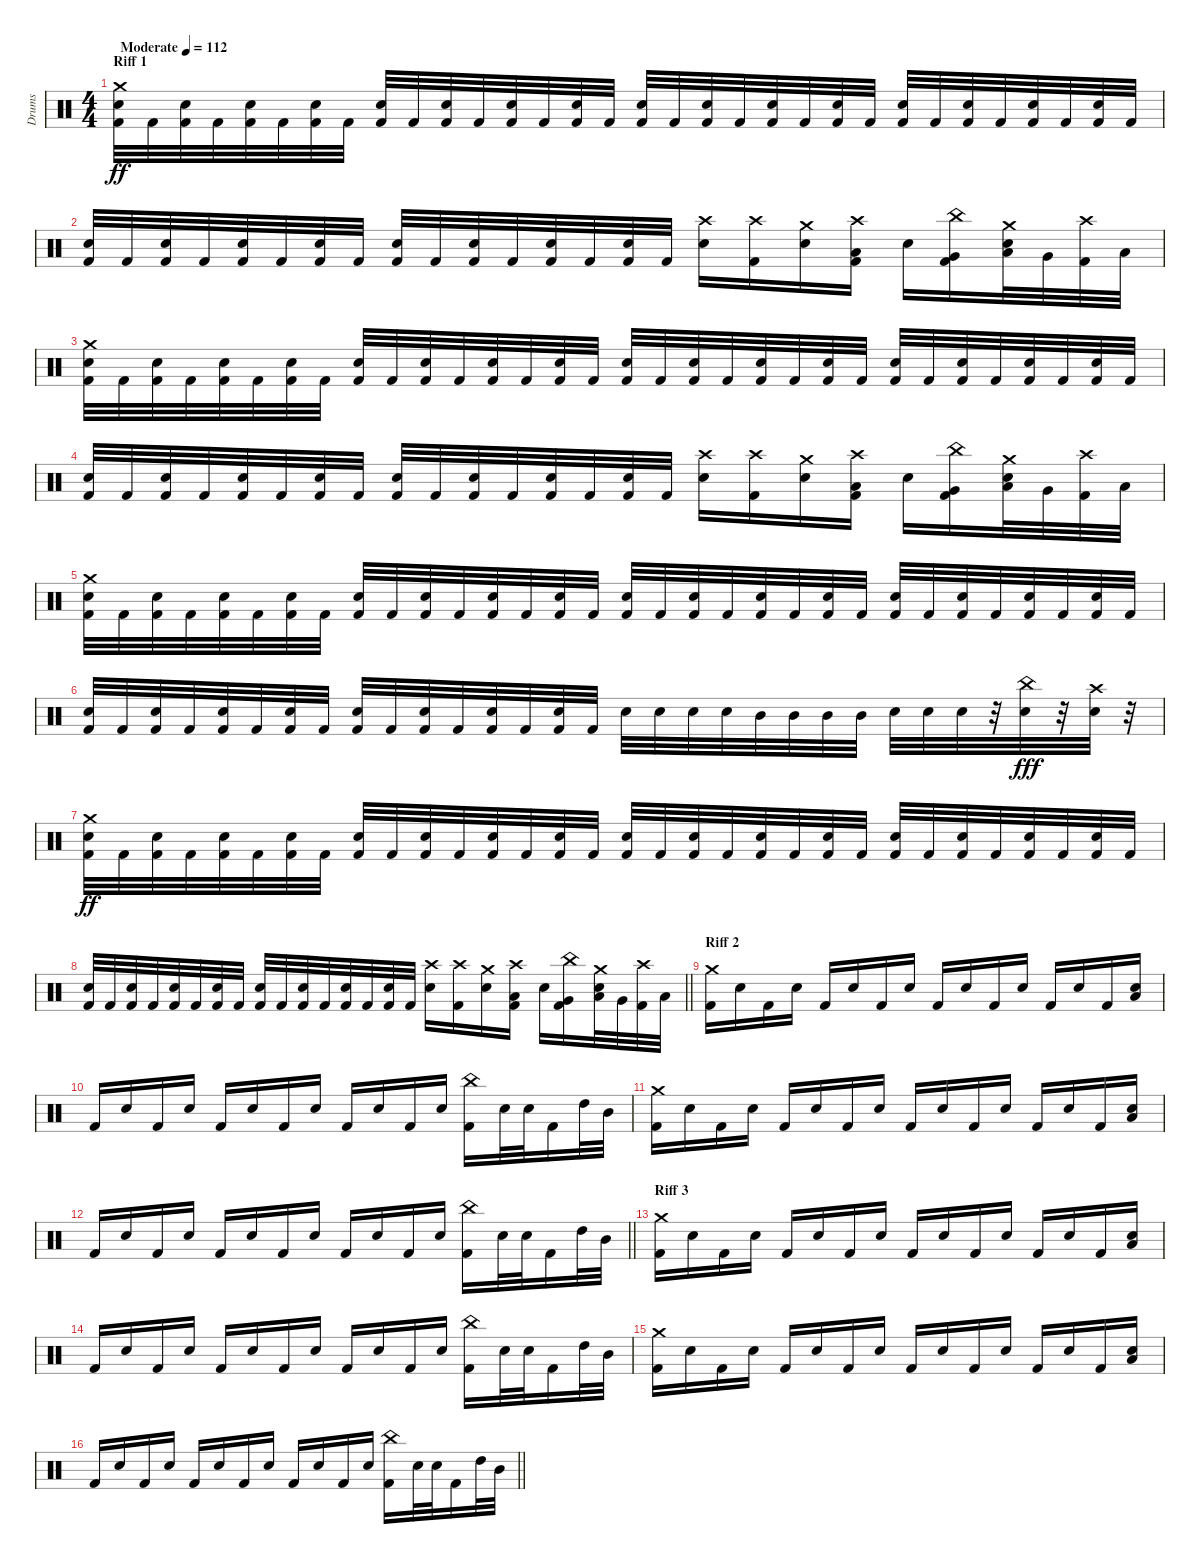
\track ("Drums" "Drums") {instrument percussion}
\staff {score}
\articulation defaults
\ts (4 4)
\section ("" "Riff 1")
\tempo (112 "Moderate")
\clef neutral
\ks c
("Crash medium (hit)" "Kick (hit) 2" "Snare (hit) 2").32{dy ff} "Kick (hit) 2".32 ("Kick (hit) 2" "Snare (hit) 2").32 "Kick (hit) 2".32 ("Kick (hit) 2" "Snare (hit) 2").32 "Kick (hit) 2".32 ("Kick (hit) 2" "Snare (hit) 2").32 "Kick (hit) 2".32 ("Kick (hit) 2" "Snare (hit) 2").32 "Kick (hit) 2".32 ("Kick (hit) 2" "Snare (hit) 2").32 "Kick (hit) 2".32 ("Kick (hit) 2" "Snare (hit) 2").32 "Kick (hit) 2".32 ("Kick (hit) 2" "Snare (hit) 2").32 "Kick (hit) 2".32 ("Kick (hit) 2" "Snare (hit) 2").32 "Kick (hit) 2".32 ("Kick (hit) 2" "Snare (hit) 2").32 "Kick (hit) 2".32 ("Kick (hit) 2" "Snare (hit) 2").32 "Kick (hit) 2".32 ("Kick (hit) 2" "Snare (hit) 2").32 "Kick (hit) 2".32 ("Kick (hit) 2" "Snare (hit) 2").32 "Kick (hit) 2".32 ("Kick (hit) 2" "Snare (hit) 2").32 "Kick (hit) 2".32 ("Kick (hit) 2" "Snare (hit) 2").32 "Kick (hit) 2".32 ("Kick (hit) 2" "Snare (hit) 2").32 "Kick (hit) 2".32 |
("Kick (hit) 2" "Snare (hit) 2").32 "Kick (hit) 2".32 ("Kick (hit) 2" "Snare (hit) 2").32 "Kick (hit) 2".32 ("Kick (hit) 2" "Snare (hit) 2").32 "Kick (hit) 2".32 ("Kick (hit) 2" "Snare (hit) 2").32 "Kick (hit) 2".32 ("Kick (hit) 2" "Snare (hit) 2").32 "Kick (hit) 2".32 ("Kick (hit) 2" "Snare (hit) 2").32 "Kick (hit) 2".32 ("Kick (hit) 2" "Snare (hit) 2").32 "Kick (hit) 2".32 ("Kick (hit) 2" "Snare (hit) 2").32 "Kick (hit) 2".32 ("Crash high (hit)" "Snare (hit) 2").16 ("Crash high (hit)" "Kick (hit) 2").16 ("Crash medium (hit)" "Snare (hit) 2").16 ("Crash high (hit)" "Kick (hit) 2" "Low Tom (hit)").16 "Snare (hit) 2".16 ("China (hit)" "Kick (hit) 2" "Very Low Tom (hit)").16 ("Crash medium (hit)" "Snare (hit) 2" "Low Tom (hit)").32 "Very Low Tom (hit)".32 ("Crash high (hit)" "Kick (hit) 2").32 "Low Tom (hit)".32 |
("Crash medium (hit)" "Kick (hit) 2" "Snare (hit) 2").32 "Kick (hit) 2".32 ("Kick (hit) 2" "Snare (hit) 2").32 "Kick (hit) 2".32 ("Kick (hit) 2" "Snare (hit) 2").32 "Kick (hit) 2".32 ("Kick (hit) 2" "Snare (hit) 2").32 "Kick (hit) 2".32 ("Kick (hit) 2" "Snare (hit) 2").32 "Kick (hit) 2".32 ("Kick (hit) 2" "Snare (hit) 2").32 "Kick (hit) 2".32 ("Kick (hit) 2" "Snare (hit) 2").32 "Kick (hit) 2".32 ("Kick (hit) 2" "Snare (hit) 2").32 "Kick (hit) 2".32 ("Kick (hit) 2" "Snare (hit) 2").32 "Kick (hit) 2".32 ("Kick (hit) 2" "Snare (hit) 2").32 "Kick (hit) 2".32 ("Kick (hit) 2" "Snare (hit) 2").32 "Kick (hit) 2".32 ("Kick (hit) 2" "Snare (hit) 2").32 "Kick (hit) 2".32 ("Kick (hit) 2" "Snare (hit) 2").32 "Kick (hit) 2".32 ("Kick (hit) 2" "Snare (hit) 2").32 "Kick (hit) 2".32 ("Kick (hit) 2" "Snare (hit) 2").32 "Kick (hit) 2".32 ("Kick (hit) 2" "Snare (hit) 2").32 "Kick (hit) 2".32 |
("Kick (hit) 2" "Snare (hit) 2").32 "Kick (hit) 2".32 ("Kick (hit) 2" "Snare (hit) 2").32 "Kick (hit) 2".32 ("Kick (hit) 2" "Snare (hit) 2").32 "Kick (hit) 2".32 ("Kick (hit) 2" "Snare (hit) 2").32 "Kick (hit) 2".32 ("Kick (hit) 2" "Snare (hit) 2").32 "Kick (hit) 2".32 ("Kick (hit) 2" "Snare (hit) 2").32 "Kick (hit) 2".32 ("Kick (hit) 2" "Snare (hit) 2").32 "Kick (hit) 2".32 ("Kick (hit) 2" "Snare (hit) 2").32 "Kick (hit) 2".32 ("Crash high (hit)" "Snare (hit) 2").16 ("Crash high (hit)" "Kick (hit) 2").16 ("Crash medium (hit)" "Snare (hit) 2").16 ("Crash high (hit)" "Kick (hit) 2" "Low Tom (hit)").16 "Snare (hit) 2".16 ("China (hit)" "Kick (hit) 2" "Very Low Tom (hit)").16 ("Crash medium (hit)" "Snare (hit) 2" "Low Tom (hit)").32 "Very Low Tom (hit)".32 ("Crash high (hit)" "Kick (hit) 2").32 "Low Tom (hit)".32 |
("Crash medium (hit)" "Kick (hit) 2" "Snare (hit) 2").32 "Kick (hit) 2".32 ("Kick (hit) 2" "Snare (hit) 2").32 "Kick (hit) 2".32 ("Kick (hit) 2" "Snare (hit) 2").32 "Kick (hit) 2".32 ("Kick (hit) 2" "Snare (hit) 2").32 "Kick (hit) 2".32 ("Kick (hit) 2" "Snare (hit) 2").32 "Kick (hit) 2".32 ("Kick (hit) 2" "Snare (hit) 2").32 "Kick (hit) 2".32 ("Kick (hit) 2" "Snare (hit) 2").32 "Kick (hit) 2".32 ("Kick (hit) 2" "Snare (hit) 2").32 "Kick (hit) 2".32 ("Kick (hit) 2" "Snare (hit) 2").32 "Kick (hit) 2".32 ("Kick (hit) 2" "Snare (hit) 2").32 "Kick (hit) 2".32 ("Kick (hit) 2" "Snare (hit) 2").32 "Kick (hit) 2".32 ("Kick (hit) 2" "Snare (hit) 2").32 "Kick (hit) 2".32 ("Kick (hit) 2" "Snare (hit) 2").32 "Kick (hit) 2".32 ("Kick (hit) 2" "Snare (hit) 2").32 "Kick (hit) 2".32 ("Kick (hit) 2" "Snare (hit) 2").32 "Kick (hit) 2".32 ("Kick (hit) 2" "Snare (hit) 2").32 "Kick (hit) 2".32 |
("Kick (hit) 2" "Snare (hit) 2").32 "Kick (hit) 2".32 ("Kick (hit) 2" "Snare (hit) 2").32 "Kick (hit) 2".32 ("Kick (hit) 2" "Snare (hit) 2").32 "Kick (hit) 2".32 ("Kick (hit) 2" "Snare (hit) 2").32 "Kick (hit) 2".32 ("Kick (hit) 2" "Snare (hit) 2").32 "Kick (hit) 2".32 ("Kick (hit) 2" "Snare (hit) 2").32 "Kick (hit) 2".32 ("Kick (hit) 2" "Snare (hit) 2").32 "Kick (hit) 2".32 ("Kick (hit) 2" "Snare (hit) 2").32 "Kick (hit) 2".32 "Snare (hit) 2".32 "Snare (hit) 2".32 "Snare (hit) 2".32 "Snare (hit) 2".32 "Mid Tom (hit)".32 "Mid Tom (hit)".32 "Mid Tom (hit)".32 "Mid Tom (hit)".32 "Snare (hit) 2".32 "Snare (hit) 2".32 "Snare (hit) 2".32 r.32 ("China (hit)" "Snare (hit) 2").32{dy fff} r.32 ("Crash high (hit)" "Snare (hit) 2").32 r.32 |
("Crash medium (hit)" "Kick (hit) 2" "Snare (hit) 2").32{dy ff} "Kick (hit) 2".32 ("Kick (hit) 2" "Snare (hit) 2").32 "Kick (hit) 2".32 ("Kick (hit) 2" "Snare (hit) 2").32 "Kick (hit) 2".32 ("Kick (hit) 2" "Snare (hit) 2").32 "Kick (hit) 2".32 ("Kick (hit) 2" "Snare (hit) 2").32 "Kick (hit) 2".32 ("Kick (hit) 2" "Snare (hit) 2").32 "Kick (hit) 2".32 ("Kick (hit) 2" "Snare (hit) 2").32 "Kick (hit) 2".32 ("Kick (hit) 2" "Snare (hit) 2").32 "Kick (hit) 2".32 ("Kick (hit) 2" "Snare (hit) 2").32 "Kick (hit) 2".32 ("Kick (hit) 2" "Snare (hit) 2").32 "Kick (hit) 2".32 ("Kick (hit) 2" "Snare (hit) 2").32 "Kick (hit) 2".32 ("Kick (hit) 2" "Snare (hit) 2").32 "Kick (hit) 2".32 ("Kick (hit) 2" "Snare (hit) 2").32 "Kick (hit) 2".32 ("Kick (hit) 2" "Snare (hit) 2").32 "Kick (hit) 2".32 ("Kick (hit) 2" "Snare (hit) 2").32 "Kick (hit) 2".32 ("Kick (hit) 2" "Snare (hit) 2").32 "Kick (hit) 2".32 |
\barLineRight lightlight
("Kick (hit) 2" "Snare (hit) 2").32 "Kick (hit) 2".32 ("Kick (hit) 2" "Snare (hit) 2").32 "Kick (hit) 2".32 ("Kick (hit) 2" "Snare (hit) 2").32 "Kick (hit) 2".32 ("Kick (hit) 2" "Snare (hit) 2").32 "Kick (hit) 2".32 ("Kick (hit) 2" "Snare (hit) 2").32 "Kick (hit) 2".32 ("Kick (hit) 2" "Snare (hit) 2").32 "Kick (hit) 2".32 ("Kick (hit) 2" "Snare (hit) 2").32 "Kick (hit) 2".32 ("Kick (hit) 2" "Snare (hit) 2").32 "Kick (hit) 2".32 ("Crash high (hit)" "Snare (hit) 2").16 ("Crash high (hit)" "Kick (hit) 2").16 ("Crash medium (hit)" "Snare (hit) 2").16 ("Crash high (hit)" "Kick (hit) 2" "Low Tom (hit)").16 "Snare (hit) 2".16 ("China (hit)" "Kick (hit) 2" "Very Low Tom (hit)").16 ("Crash medium (hit)" "Snare (hit) 2" "Low Tom (hit)").32 "Very Low Tom (hit)".32 ("Crash high (hit)" "Kick (hit) 2").32 "Low Tom (hit)".32 |
\section ("" "Riff 2")
("Crash medium (hit)" "Kick (hit) 2").16 "Snare (hit) 2".16 "Kick (hit) 2".16 "Snare (hit) 2".16 "Kick (hit) 2".16 "Snare (hit) 2".16 "Kick (hit) 2".16 "Snare (hit) 2".16 "Kick (hit) 2".16 "Snare (hit) 2".16 "Kick (hit) 2".16 "Snare (hit) 2".16 "Kick (hit) 2".16 "Snare (hit) 2".16 "Kick (hit) 2".16 ("Snare (hit) 2" "Low Tom (hit)").16 |
"Kick (hit) 2".16 "Snare (hit) 2".16 "Kick (hit) 2".16 "Snare (hit) 2".16 "Kick (hit) 2".16 "Snare (hit) 2".16 "Kick (hit) 2".16 "Snare (hit) 2".16 "Kick (hit) 2".16 "Snare (hit) 2".16 "Kick (hit) 2".16 "Snare (hit) 2".16 ("China (hit)" "Kick (hit) 2").16 "Snare (hit) 2".32 "Snare (hit) 2".32 "Kick (hit) 2".16 "High Tom (hit)".32 "Mid Tom (hit)".32 |
("Crash medium (hit)" "Kick (hit) 2").16 "Snare (hit) 2".16 "Kick (hit) 2".16 "Snare (hit) 2".16 "Kick (hit) 2".16 "Snare (hit) 2".16 "Kick (hit) 2".16 "Snare (hit) 2".16 "Kick (hit) 2".16 "Snare (hit) 2".16 "Kick (hit) 2".16 "Snare (hit) 2".16 "Kick (hit) 2".16 "Snare (hit) 2".16 "Kick (hit) 2".16 ("Snare (hit) 2" "Low Tom (hit)").16 |
\barLineRight lightlight "Kick (hit) 2".16 "Snare (hit) 2".16 "Kick (hit) 2".16 "Snare (hit) 2".16 "Kick (hit) 2".16 "Snare (hit) 2".16 "Kick (hit) 2".16 "Snare (hit) 2".16 "Kick (hit) 2".16 "Snare (hit) 2".16 "Kick (hit) 2".16 "Snare (hit) 2".16
("China (hit)" "Kick (hit) 2").16 "Snare (hit) 2".32 "Snare (hit) 2".32 "Kick (hit) 2".16 "High Tom (hit)".32 "Mid Tom (hit)".32 |
\section ("" "Riff 3")
("Crash medium (hit)" "Kick (hit) 2").16 "Snare (hit) 2".16 "Kick (hit) 2".16 "Snare (hit) 2".16 "Kick (hit) 2".16 "Snare (hit) 2".16 "Kick (hit) 2".16 "Snare (hit) 2".16 "Kick (hit) 2".16 "Snare (hit) 2".16 "Kick (hit) 2".16 "Snare (hit) 2".16 "Kick (hit) 2".16 "Snare (hit) 2".16 "Kick (hit) 2".16 ("Snare (hit) 2" "Low Tom (hit)").16 |
"Kick (hit) 2".16 "Snare (hit) 2".16 "Kick (hit) 2".16 "Snare (hit) 2".16 "Kick (hit) 2".16 "Snare (hit) 2".16 "Kick (hit) 2".16 "Snare (hit) 2".16 "Kick (hit) 2".16 "Snare (hit) 2".16 "Kick (hit) 2".16 "Snare (hit) 2".16 ("China (hit)" "Kick (hit) 2").16 "Snare (hit) 2".32 "Snare (hit) 2".32 "Kick (hit) 2".16 "High Tom (hit)".32 "Mid Tom (hit)".32 |
("Crash medium (hit)" "Kick (hit) 2").16 "Snare (hit) 2".16 "Kick (hit) 2".16 "Snare (hit) 2".16 "Kick (hit) 2".16 "Snare (hit) 2".16 "Kick (hit) 2".16 "Snare (hit) 2".16 "Kick (hit) 2".16 "Snare (hit) 2".16 "Kick (hit) 2".16 "Snare (hit) 2".16 "Kick (hit) 2".16 "Snare (hit) 2".16 "Kick (hit) 2".16 ("Snare (hit) 2" "Low Tom (hit)").16 |
\barLineRight lightlight "Kick (hit) 2".16 "Snare (hit) 2".16 "Kick (hit) 2".16 "Snare (hit) 2".16 "Kick (hit) 2".16 "Snare (hit) 2".16 "Kick (hit) 2".16 "Snare (hit) 2".16 "Kick (hit) 2".16 "Snare (hit) 2".16 "Kick (hit) 2".16 "Snare (hit) 2".16
("China (hit)" "Kick (hit) 2").16 "Snare (hit) 2".32 "Snare (hit) 2".32 "Kick (hit) 2".16 "High Tom (hit)".32 "Mid Tom (hit)".32
